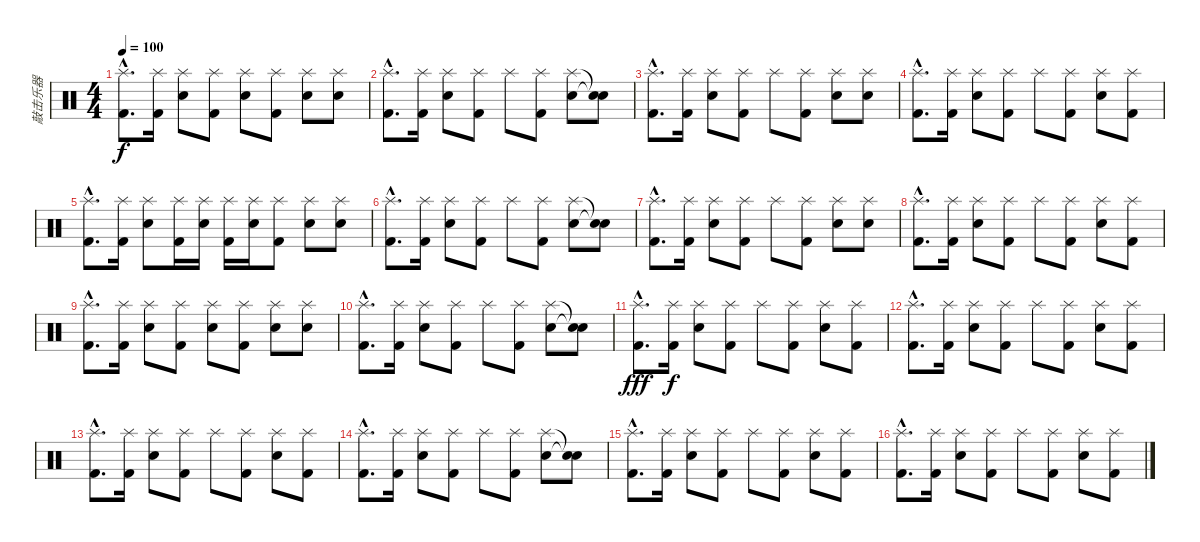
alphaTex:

\track ("敲击乐器" "敲击乐器") {instrument percussion}
\staff {score}
\articulation defaults
\ts (4 4)
\tempo 100
\clef neutral
\ks c
("Kick (hit) 2"{hac} "Splash (hit)"{hac}).8{d dy f} ("Kick (hit) 2" "Splash (hit)").16 ("Electric Snare (hit)" "Splash (hit)").8 ("Kick (hit) 2" "Splash (hit)").8 ("Electric Snare (hit)" "Splash (hit)").8 ("Kick (hit) 2" "Splash (hit)").8 ("Electric Snare (hit)" "Splash (hit)").8 ("Electric Snare (hit)" "Splash (hit)").8 |
("Kick (hit) 2"{hac} "Splash (hit)"{hac}).8{d} ("Kick (hit) 2" "Splash (hit)").16 ("Electric Snare (hit)" "Splash (hit)").8 ("Kick (hit) 2" "Splash (hit)").8 "Splash (hit)".8 ("Kick (hit) 2" "Splash (hit)").8 ("Electric Snare (hit)" "Splash (hit)").8 ("Snare (hit)"{t} "Snare (hit)"{t}).8 |
("Kick (hit) 2"{hac} "Splash (hit)"{hac}).8{d} ("Kick (hit) 2" "Splash (hit)").16 ("Electric Snare (hit)" "Splash (hit)").8 ("Kick (hit) 2" "Splash (hit)").8 "Splash (hit)".8 ("Kick (hit) 2" "Splash (hit)").8 ("Electric Snare (hit)" "Splash (hit)").8 ("Electric Snare (hit)" "Splash (hit)").8 |
("Kick (hit) 2"{hac} "Splash (hit)"{hac}).8{d} ("Kick (hit) 2" "Splash (hit)").16 ("Electric Snare (hit)" "Splash (hit)").8 ("Kick (hit) 2" "Splash (hit)").8 "Splash (hit)".8 ("Kick (hit) 2" "Splash (hit)").8 ("Electric Snare (hit)" "Splash (hit)").8 ("Kick (hit) 2" "Splash (hit)").8 |
("Kick (hit) 2"{hac} "Splash (hit)"{hac}).8{d} ("Kick (hit) 2" "Splash (hit)").16 ("Electric Snare (hit)" "Splash (hit)").8 ("Kick (hit) 2" "Splash (hit)").16 ("Electric Snare (hit)" "Splash (hit)").16 ("Kick (hit) 2" "Splash (hit)").16 ("Electric Snare (hit)" "Splash (hit)").16 ("Kick (hit) 2" "Splash (hit)").8 ("Electric Snare (hit)" "Splash (hit)").8 ("Electric Snare (hit)" "Splash (hit)").8 |
("Kick (hit) 2"{hac} "Splash (hit)"{hac}).8{d} ("Kick (hit) 2" "Splash (hit)").16 ("Electric Snare (hit)" "Splash (hit)").8 ("Kick (hit) 2" "Splash (hit)").8 "Splash (hit)".8 ("Kick (hit) 2" "Splash (hit)").8 ("Electric Snare (hit)" "Splash (hit)").8 ("Snare (hit)"{t} "Snare (hit)"{t}).8 |
("Kick (hit) 2"{hac} "Splash (hit)"{hac}).8{d} ("Kick (hit) 2" "Splash (hit)").16 ("Electric Snare (hit)" "Splash (hit)").8 ("Kick (hit) 2" "Splash (hit)").8 "Splash (hit)".8 ("Kick (hit) 2" "Splash (hit)").8 ("Electric Snare (hit)" "Splash (hit)").8 ("Electric Snare (hit)" "Splash (hit)").8 |
("Kick (hit) 2"{hac} "Splash (hit)"{hac}).8{d} ("Kick (hit) 2" "Splash (hit)").16 ("Electric Snare (hit)" "Splash (hit)").8 ("Kick (hit) 2" "Splash (hit)").8 "Splash (hit)".8 ("Kick (hit) 2" "Splash (hit)").8 ("Electric Snare (hit)" "Splash (hit)").8 ("Kick (hit) 2" "Splash (hit)").8 |
("Kick (hit) 2"{hac} "Splash (hit)"{hac}).8{d} ("Kick (hit) 2" "Splash (hit)").16 ("Electric Snare (hit)" "Splash (hit)").8 ("Kick (hit) 2" "Splash (hit)").8 ("Electric Snare (hit)" "Splash (hit)").8 ("Kick (hit) 2" "Splash (hit)").8 ("Electric Snare (hit)" "Splash (hit)").8 ("Electric Snare (hit)" "Splash (hit)").8 |
("Kick (hit) 2"{hac} "Splash (hit)"{hac}).8{d} ("Kick (hit) 2" "Splash (hit)").16 ("Electric Snare (hit)" "Splash (hit)").8 ("Kick (hit) 2" "Splash (hit)").8 "Splash (hit)".8 ("Kick (hit) 2" "Splash (hit)").8 ("Electric Snare (hit)" "Splash (hit)").8 ("Snare (hit)"{t} "Snare (hit)"{t}).8 |
("Kick (hit) 2"{hac} "Splash (hit)"{hac}).8{d dy fff} ("Kick (hit) 2" "Splash (hit)").16{dy f} ("Electric Snare (hit)" "Splash (hit)").8 ("Kick (hit) 2" "Splash (hit)").8 "Splash (hit)".8 ("Kick (hit) 2" "Splash (hit)").8 ("Electric Snare (hit)" "Splash (hit)").8 ("Kick (hit) 2" "Splash (hit)").8 |
("Kick (hit) 2"{hac} "Splash (hit)"{hac}).8{d} ("Kick (hit) 2" "Splash (hit)").16 ("Electric Snare (hit)" "Splash (hit)").8 ("Kick (hit) 2" "Splash (hit)").8 "Splash (hit)".8 ("Kick (hit) 2" "Splash (hit)").8 ("Electric Snare (hit)" "Splash (hit)").8 ("Kick (hit) 2" "Splash (hit)").8 |
("Kick (hit) 2"{hac} "Splash (hit)"{hac}).8{d} ("Kick (hit) 2" "Splash (hit)").16 ("Electric Snare (hit)" "Splash (hit)").8 ("Kick (hit) 2" "Splash (hit)").8 "Splash (hit)".8 ("Kick (hit) 2" "Splash (hit)").8 ("Electric Snare (hit)" "Splash (hit)").8 ("Kick (hit) 2" "Splash (hit)").8 |
("Kick (hit) 2"{hac} "Splash (hit)"{hac}).8{d} ("Kick (hit) 2" "Splash (hit)").16 ("Electric Snare (hit)" "Splash (hit)").8 ("Kick (hit) 2" "Splash (hit)").8 "Splash (hit)".8 ("Kick (hit) 2" "Splash (hit)").8 ("Electric Snare (hit)" "Splash (hit)").8 ("Snare (hit)"{t} "Snare (hit)"{t}).8 |
("Kick (hit) 2"{hac} "Splash (hit)"{hac}).8{d} ("Kick (hit) 2" "Splash (hit)").16 ("Electric Snare (hit)" "Splash (hit)").8 ("Kick (hit) 2" "Splash (hit)").8 "Splash (hit)".8 ("Kick (hit) 2" "Splash (hit)").8 ("Electric Snare (hit)" "Splash (hit)").8 ("Kick (hit) 2" "Splash (hit)").8 |
("Kick (hit) 2"{hac} "Splash (hit)"{hac}).8{d} ("Kick (hit) 2" "Splash (hit)").16 ("Electric Snare (hit)" "Splash (hit)").8 ("Kick (hit) 2" "Splash (hit)").8 "Splash (hit)".8 ("Kick (hit) 2" "Splash (hit)").8 ("Electric Snare (hit)" "Splash (hit)").8 ("Kick (hit) 2" "Splash (hit)").8
